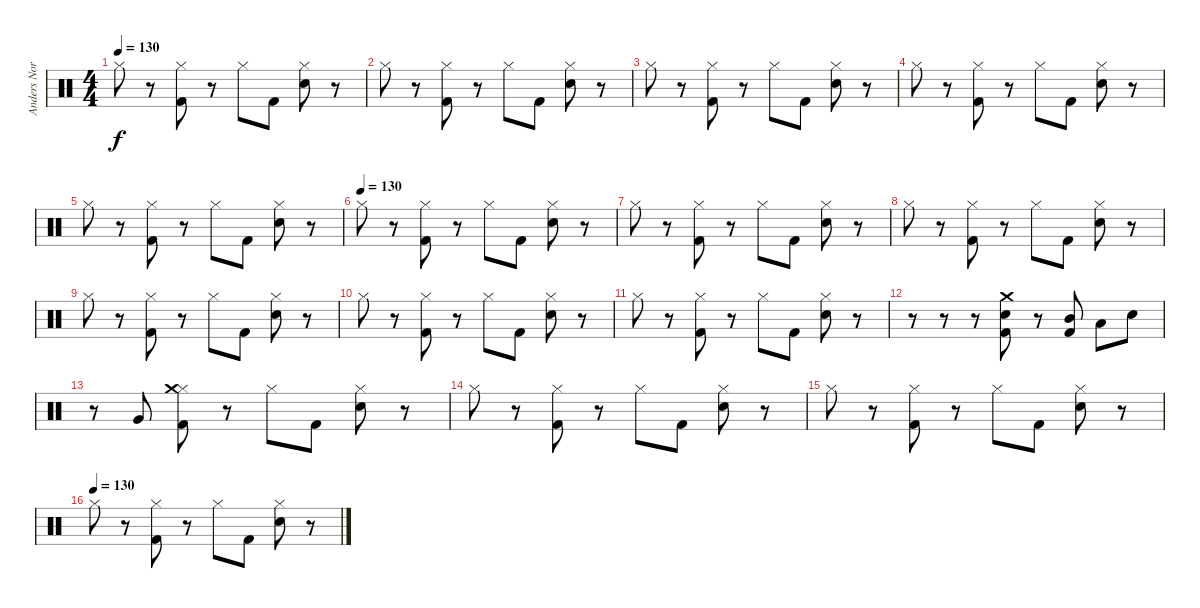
\track ("Anders Nordin" "Anders Nor") {instrument percussion}
\staff {score}
\articulation defaults
\ts (4 4)
\tempo 130
\clef neutral
\ks c "Hi-Hat (closed)".8{dy f}
r.8 ("Hi-Hat (closed)" "Kick (hit) 2").8 r.8 "Hi-Hat (closed)".8 "Kick (hit) 2".8 ("Hi-Hat (closed)" "Snare (hit) 2").8 r.8 |
"Hi-Hat (closed)".8 r.8 ("Hi-Hat (closed)" "Kick (hit) 2").8 r.8 "Hi-Hat (closed)".8 "Kick (hit) 2".8 ("Hi-Hat (closed)" "Snare (hit) 2").8 r.8 |
"Hi-Hat (closed)".8 r.8 ("Hi-Hat (closed)" "Kick (hit) 2").8 r.8 "Hi-Hat (closed)".8 "Kick (hit) 2".8 ("Hi-Hat (closed)" "Snare (hit) 2").8 r.8 |
"Hi-Hat (closed)".8 r.8 ("Hi-Hat (closed)" "Kick (hit) 2").8 r.8 "Hi-Hat (closed)".8 "Kick (hit) 2".8 ("Hi-Hat (closed)" "Snare (hit) 2").8 r.8 |
"Hi-Hat (closed)".8 r.8 ("Hi-Hat (closed)" "Kick (hit) 2").8 r.8 "Hi-Hat (closed)".8 "Kick (hit) 2".8 ("Hi-Hat (closed)" "Snare (hit) 2").8 r.8 |
\tempo (130)
"Hi-Hat (closed)".8 r.8 ("Hi-Hat (closed)" "Kick (hit) 2").8 r.8 "Hi-Hat (closed)".8 "Kick (hit) 2".8 ("Hi-Hat (closed)" "Snare (hit) 2").8 r.8 |
"Hi-Hat (closed)".8 r.8 ("Hi-Hat (closed)" "Kick (hit) 2").8 r.8 "Hi-Hat (closed)".8 "Kick (hit) 2".8 ("Hi-Hat (closed)" "Snare (hit) 2").8 r.8 |
"Hi-Hat (closed)".8 r.8 ("Hi-Hat (closed)" "Kick (hit) 2").8 r.8 "Hi-Hat (closed)".8 "Kick (hit) 2".8 ("Hi-Hat (closed)" "Snare (hit) 2").8 r.8 |
"Hi-Hat (closed)".8 r.8 ("Hi-Hat (closed)" "Kick (hit) 2").8 r.8 "Hi-Hat (closed)".8 "Kick (hit) 2".8 ("Hi-Hat (closed)" "Snare (hit) 2").8 r.8 |
"Hi-Hat (closed)".8 r.8 ("Hi-Hat (closed)" "Kick (hit) 2").8 r.8 "Hi-Hat (closed)".8 "Kick (hit) 2".8 ("Hi-Hat (closed)" "Snare (hit) 2").8 r.8 |
"Hi-Hat (closed)".8 r.8 ("Hi-Hat (closed)" "Kick (hit) 2").8 r.8 "Hi-Hat (closed)".8 "Kick (hit) 2".8 ("Hi-Hat (closed)" "Snare (hit) 2").8 r.8 |
r.8 r.8 r.8 ("Crash medium (hit)" "Kick (hit) 2" "Snare (hit) 2").8 r.8 ("Mid Tom (hit)" "Kick (hit) 2").8 "Low Tom (hit)".8 "Snare (hit) 2".8 |
r.8 "Very Low Tom (hit)".8 ("Hi-Hat (closed)" "Crash medium (hit)" "Kick (hit) 2").8 r.8 "Hi-Hat (closed)".8 "Kick (hit) 2".8 ("Hi-Hat (closed)" "Snare (hit) 2").8 r.8 |
"Hi-Hat (closed)".8 r.8 ("Hi-Hat (closed)" "Kick (hit) 2").8 r.8 "Hi-Hat (closed)".8 "Kick (hit) 2".8 ("Hi-Hat (closed)" "Snare (hit) 2").8 r.8 |
"Hi-Hat (closed)".8 r.8 ("Hi-Hat (closed)" "Kick (hit) 2").8 r.8 "Hi-Hat (closed)".8 "Kick (hit) 2".8 ("Hi-Hat (closed)" "Snare (hit) 2").8 r.8 |
\tempo (130)
"Hi-Hat (closed)".8 r.8 ("Hi-Hat (closed)" "Kick (hit) 2").8 r.8 "Hi-Hat (closed)".8 "Kick (hit) 2".8 ("Hi-Hat (closed)" "Snare (hit) 2").8 r.8
